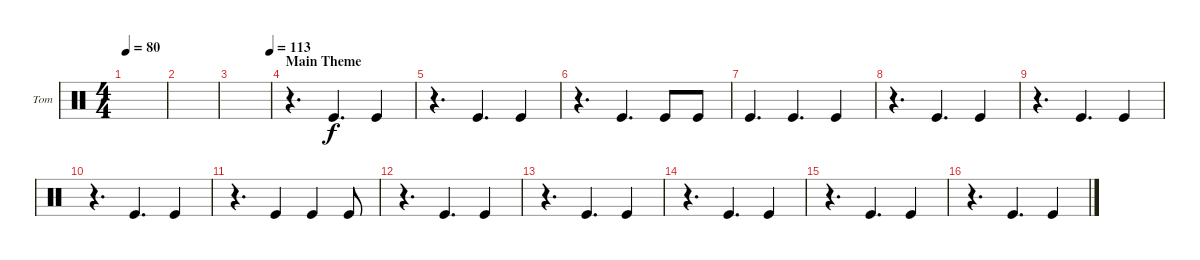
\defaultSystemsLayout 4
\bracketExtendMode groupsimilarinstruments
\firstSystemTrackNameOrientation horizontal
\otherSystemsTrackNameOrientation horizontal
\track ("Melodic Tom" "Tom") {instrument percussion}
\staff {score}
\articulation defaults
\ts (4 4)
\tempo 80
\clef neutral
\scale
0.333333
\ks c
|
\scale
0.333333 |
\tempo (113 1)
\scale
0.333333 |
\section ("" "Main Theme")
\scale
0.333333 r.4{d} "Kick (hit)".4{d} "Kick (hit)".4 |
\scale
0.333333 r.4{d} "Kick (hit)".4{d} "Kick (hit)".4 |
\scale
0.333333 r.4{d} "Kick (hit)".4{d} "Kick (hit)".8 "Kick (hit)".8 |
\scale
0.333333 "Kick (hit)".4{d} "Kick (hit)".4{d} "Kick (hit)".4 |
\scale
0.333333 r.4{d} "Kick (hit)".4{d} "Kick (hit)".4 |
\scale
0.333333 r.4{d} "Kick (hit)".4{d} "Kick (hit)".4 |
\scale
0.333333 r.4{d} "Kick (hit)".4{d} "Kick (hit)".4 |
\scale
0.333333 r.4{d} "Kick (hit)".4 "Kick (hit)".4 "Kick (hit)".8 |
\scale
0.333333 r.4{d} "Kick (hit)".4{d} "Kick (hit)".4 |
\scale
0.333333 r.4{d} "Kick (hit)".4{d} "Kick (hit)".4 |
\scale
0.333333 r.4{d} "Kick (hit)".4{d} "Kick (hit)".4 |
\scale
0.333333 r.4{d} "Kick (hit)".4{d} "Kick (hit)".4 |
\scale
0.333333 r.4{d} "Kick (hit)".4{d} "Kick (hit)".4
